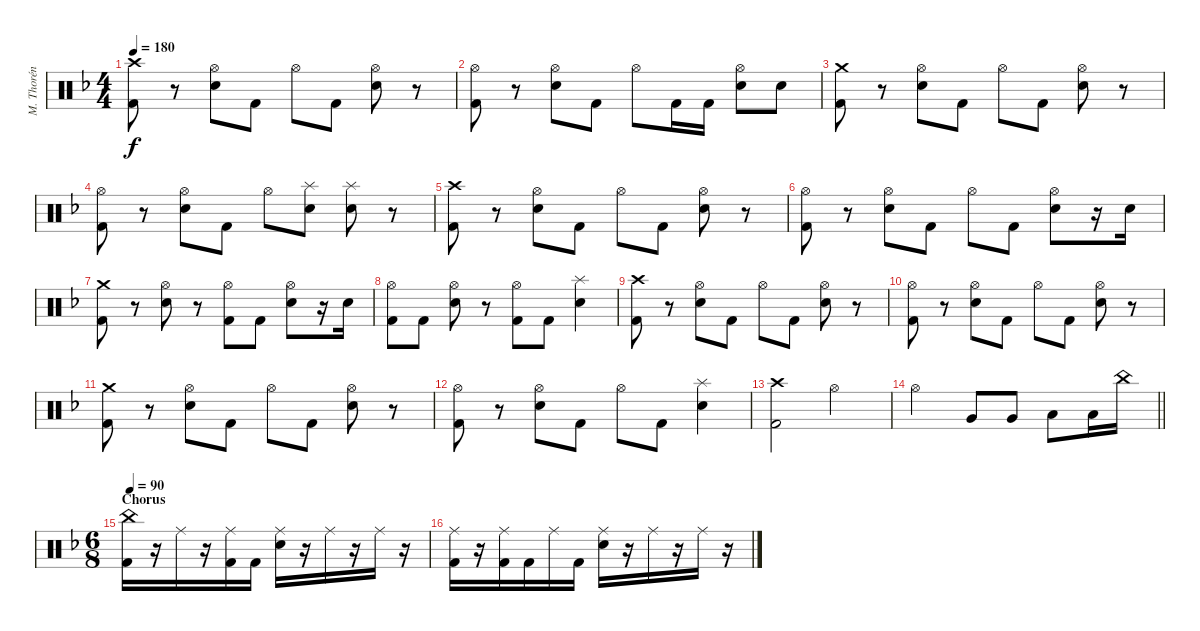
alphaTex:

\track ("M. Thorén (Drums)" "M. Thorén ") {instrument percussion}
\staff {score}
\articulation defaults
\ts (4 4)
\tempo 180
\clef neutral
\ks dminor
("Crash high (hit)" "Kick (hit) 2").8{dy f} r.8 ("Hi-Hat (open)" "Electric Snare (hit)").8 "Kick (hit) 2".8 "Hi-Hat (open)".8 "Kick (hit) 2".8 ("Hi-Hat (open)" "Electric Snare (hit)").8 r.8 |
("Hi-Hat (open)" "Kick (hit) 2").8 r.8 ("Hi-Hat (open)" "Electric Snare (hit)").8 "Kick (hit) 2".8 "Hi-Hat (open)".8 "Kick (hit) 2".16 "Kick (hit) 2".16 ("Hi-Hat (open)" "Electric Snare (hit)").8 "Electric Snare (hit)".8 |
("Crash medium (hit)" "Kick (hit) 2").8 r.8 ("Hi-Hat (open)" "Electric Snare (hit)").8 "Kick (hit) 2".8 "Hi-Hat (open)".8 "Kick (hit) 2".8 ("Hi-Hat (open)" "Electric Snare (hit)").8 r.8 |
("Hi-Hat (open)" "Kick (hit) 2").8 r.8 ("Hi-Hat (open)" "Electric Snare (hit)").8 "Kick (hit) 2".8 "Hi-Hat (open)".8 ("Splash (hit)" "Electric Snare (hit)").8 ("Splash (hit)" "Electric Snare (hit)").8 r.8 |
("Crash high (hit)" "Kick (hit) 2").8 r.8 ("Hi-Hat (open)" "Electric Snare (hit)").8 "Kick (hit) 2".8 "Hi-Hat (open)".8 "Kick (hit) 2".8 ("Hi-Hat (open)" "Electric Snare (hit)").8 r.8 |
("Hi-Hat (open)" "Kick (hit) 2").8 r.8 ("Hi-Hat (open)" "Electric Snare (hit)").8 "Kick (hit) 2".8 "Hi-Hat (open)".8 "Kick (hit) 2".8 ("Hi-Hat (open)" "Electric Snare (hit)").8 r.16 "Electric Snare (hit)".16 |
("Crash medium (hit)" "Kick (hit) 2").8 r.8 ("Hi-Hat (open)" "Electric Snare (hit)").8 r.8 ("Hi-Hat (open)" "Kick (hit) 2").8 "Kick (hit) 2".8 ("Hi-Hat (open)" "Electric Snare (hit)").8 r.16 "Electric Snare (hit)".16 |
("Hi-Hat (open)" "Kick (hit) 2").8 "Kick (hit) 2".8 ("Hi-Hat (open)" "Electric Snare (hit)").8 r.8 ("Hi-Hat (open)" "Kick (hit) 2").8 "Kick (hit) 2".8 ("Splash (hit)" "Electric Snare (hit)").4 |
("Crash high (hit)" "Kick (hit) 2").8 r.8 ("Hi-Hat (open)" "Electric Snare (hit)").8 "Kick (hit) 2".8 "Hi-Hat (open)".8 "Kick (hit) 2".8 ("Hi-Hat (open)" "Electric Snare (hit)").8 r.8 |
("Hi-Hat (open)" "Kick (hit) 2").8 r.8 ("Hi-Hat (open)" "Electric Snare (hit)").8 "Kick (hit) 2".8 "Hi-Hat (open)".8 "Kick (hit) 2".8 ("Hi-Hat (open)" "Electric Snare (hit)").8 r.8 |
("Crash medium (hit)" "Kick (hit) 2").8 r.8 ("Hi-Hat (open)" "Electric Snare (hit)").8 "Kick (hit) 2".8 "Hi-Hat (open)".8 "Kick (hit) 2".8 ("Hi-Hat (open)" "Electric Snare (hit)").8 r.8 |
("Hi-Hat (open)" "Kick (hit) 2").8 r.8 ("Hi-Hat (open)" "Electric Snare (hit)").8 "Kick (hit) 2".8 "Hi-Hat (open)".8 "Kick (hit) 2".8 ("Splash (hit)" "Electric Snare (hit)").4 |
("Crash high (hit)" "Kick (hit) 2").2 "Hi-Hat (open)".2 |
\barLineRight lightlight "Hi-Hat (open)".2 "Very Low Tom (hit)".8 "Very Low Tom (hit)".8 "Low Floor Tom (hit)".8 "Low Floor Tom (hit)".16 "China (hit)".16
|
\ts (6 8)
\section ("" "Chorus")
\tempo 90
("China (hit)" "Kick (hit) 2").16 r.16 "Ride (middle)".16 r.16 ("Ride (middle)" "Kick (hit) 2").16 "Kick (hit) 2".16 ("Ride (middle)" "Electric Snare (hit)").16 r.16 "Ride (middle)".16 r.16 "Ride (middle)".16 r.16 |
("Ride (middle)" "Kick (hit) 2").16 r.16 ("Ride (middle)" "Kick (hit) 2").16 "Kick (hit) 2".16 "Ride (middle)".16 "Kick (hit) 2".16 ("Ride (middle)" "Electric Snare (hit)").16 r.16 "Ride (middle)".16 r.16 "Ride (middle)".16 r.16
